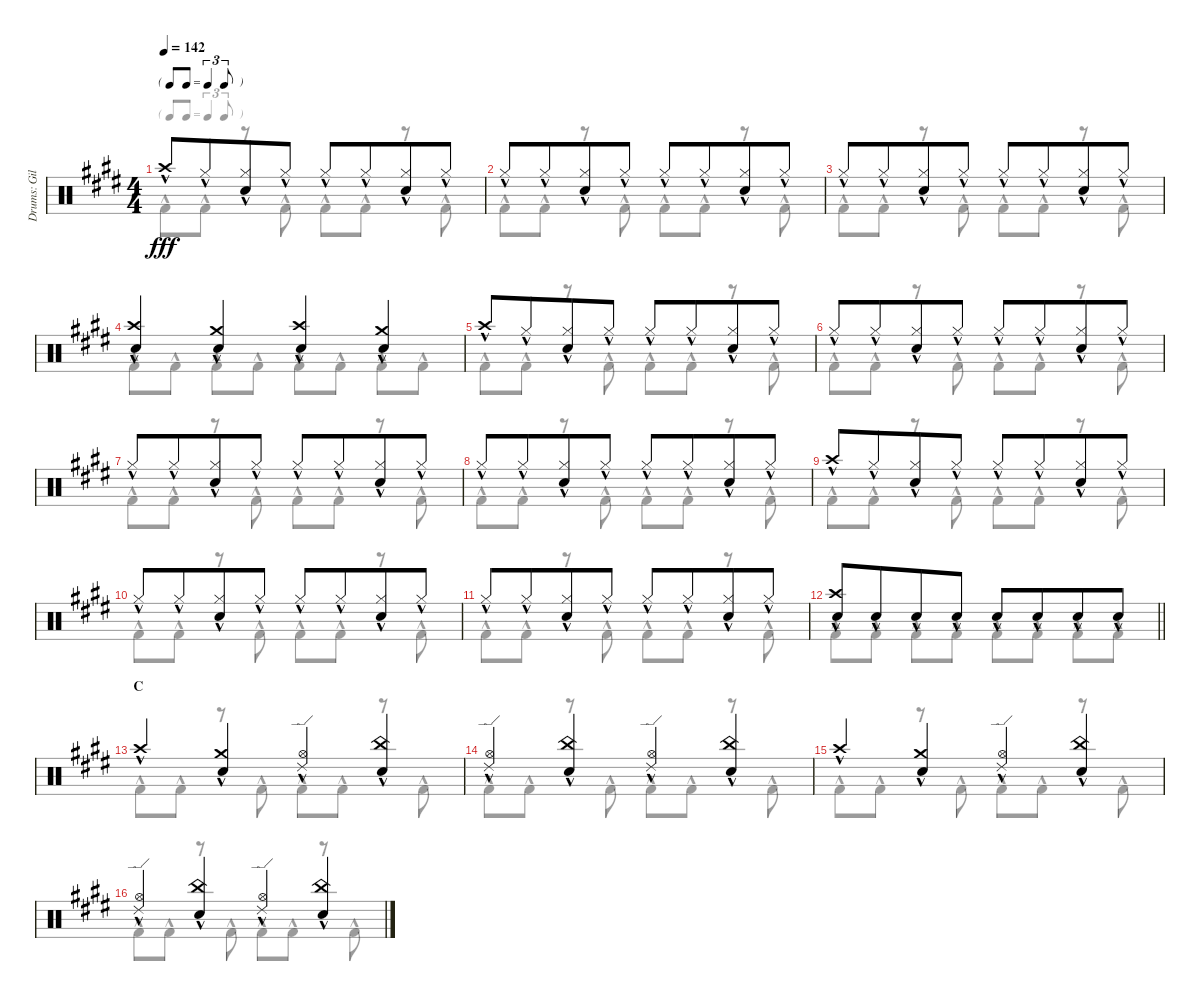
\track ("Drums: Gil" "Drums: Gil") {instrument percussion}
\staff {score}
\articulation defaults
\voice
\ts (4 4)
\tf triplet8th
\tempo 142
\clef neutral
\ks e "Crash high (hit)"{hac}.8{dy fff} "Hi-Hat (closed)"{hac}.8{beam merge}
("Hi-Hat (closed)"{hac} "Snare (hit) 2"{hac}).8 "Hi-Hat (closed)"{hac}.8 "Hi-Hat (closed)"{hac}.8 "Hi-Hat (closed)"{hac}.8{beam merge} ("Hi-Hat (closed)"{hac} "Snare (hit) 2"{hac}).8 "Hi-Hat (closed)"{hac}.8 |
"Hi-Hat (closed)"{hac}.8 "Hi-Hat (closed)"{hac}.8{beam merge} ("Hi-Hat (closed)"{hac} "Snare (hit) 2"{hac}).8 "Hi-Hat (closed)"{hac}.8 "Hi-Hat (closed)"{hac}.8 "Hi-Hat (closed)"{hac}.8{beam merge} ("Hi-Hat (closed)"{hac} "Snare (hit) 2"{hac}).8 "Hi-Hat (closed)"{hac}.8 |
"Hi-Hat (closed)"{hac}.8 "Hi-Hat (closed)"{hac}.8{beam merge} ("Hi-Hat (closed)"{hac} "Snare (hit) 2"{hac}).8 "Hi-Hat (closed)"{hac}.8 "Hi-Hat (closed)"{hac}.8 "Hi-Hat (closed)"{hac}.8{beam merge} ("Hi-Hat (closed)"{hac} "Snare (hit) 2"{hac}).8 "Hi-Hat (closed)"{hac}.8 |
("Crash high (hit)"{hac} "Snare (hit) 2"{hac}).4 ("Crash medium (hit)"{hac} "Snare (hit) 2"{hac}).4 ("Crash high (hit)"{hac} "Snare (hit) 2"{hac}).4 ("Crash medium (hit)"{hac} "Snare (hit) 2"{hac}).4 |
"Crash high (hit)"{hac}.8 "Hi-Hat (closed)"{hac}.8{beam merge} ("Hi-Hat (closed)"{hac} "Snare (hit) 2"{hac}).8 "Hi-Hat (closed)"{hac}.8 "Hi-Hat (closed)"{hac}.8 "Hi-Hat (closed)"{hac}.8{beam merge} ("Hi-Hat (closed)"{hac} "Snare (hit) 2"{hac}).8 "Hi-Hat (closed)"{hac}.8 |
"Hi-Hat (closed)"{hac}.8 "Hi-Hat (closed)"{hac}.8{beam merge} ("Hi-Hat (closed)"{hac} "Snare (hit) 2"{hac}).8 "Hi-Hat (closed)"{hac}.8 "Hi-Hat (closed)"{hac}.8 "Hi-Hat (closed)"{hac}.8{beam merge} ("Hi-Hat (closed)"{hac} "Snare (hit) 2"{hac}).8 "Hi-Hat (closed)"{hac}.8 |
"Hi-Hat (closed)"{hac}.8 "Hi-Hat (closed)"{hac}.8{beam merge} ("Hi-Hat (closed)"{hac} "Snare (hit) 2"{hac}).8 "Hi-Hat (closed)"{hac}.8 "Hi-Hat (closed)"{hac}.8 "Hi-Hat (closed)"{hac}.8{beam merge} ("Hi-Hat (closed)"{hac} "Snare (hit) 2"{hac}).8 "Hi-Hat (closed)"{hac}.8 |
"Hi-Hat (closed)"{hac}.8 "Hi-Hat (closed)"{hac}.8{beam merge} ("Hi-Hat (closed)"{hac} "Snare (hit) 2"{hac}).8 "Hi-Hat (closed)"{hac}.8 "Hi-Hat (closed)"{hac}.8 "Hi-Hat (closed)"{hac}.8{beam merge} ("Hi-Hat (closed)"{hac} "Snare (hit) 2"{hac}).8 "Hi-Hat (closed)"{hac}.8 |
"Crash high (hit)"{hac}.8 "Hi-Hat (closed)"{hac}.8{beam merge} ("Hi-Hat (closed)"{hac} "Snare (hit) 2"{hac}).8 "Hi-Hat (closed)"{hac}.8 "Hi-Hat (closed)"{hac}.8 "Hi-Hat (closed)"{hac}.8{beam merge} ("Hi-Hat (closed)"{hac} "Snare (hit) 2"{hac}).8 "Hi-Hat (closed)"{hac}.8 |
"Hi-Hat (closed)"{hac}.8 "Hi-Hat (closed)"{hac}.8{beam merge} ("Hi-Hat (closed)"{hac} "Snare (hit) 2"{hac}).8 "Hi-Hat (closed)"{hac}.8 "Hi-Hat (closed)"{hac}.8 "Hi-Hat (closed)"{hac}.8{beam merge} ("Hi-Hat (closed)"{hac} "Snare (hit) 2"{hac}).8 "Hi-Hat (closed)"{hac}.8 |
"Hi-Hat (closed)"{hac}.8 "Hi-Hat (closed)"{hac}.8{beam merge} ("Hi-Hat (closed)"{hac} "Snare (hit) 2"{hac}).8 "Hi-Hat (closed)"{hac}.8 "Hi-Hat (closed)"{hac}.8 "Hi-Hat (closed)"{hac}.8{beam merge} ("Hi-Hat (closed)"{hac} "Snare (hit) 2"{hac}).8 "Hi-Hat (closed)"{hac}.8 |
\barLineRight lightlight
("Crash high (hit)"{hac} "Snare (hit) 2"{hac}).8 "Snare (hit) 2"{hac}.8{beam merge} "Snare (hit) 2"{hac}.8 "Snare (hit) 2"{hac}.8 "Snare (hit) 2"{hac}.8 "Snare (hit) 2"{hac}.8{beam merge} "Snare (hit) 2"{hac}.8 "Snare (hit) 2"{hac}.8 |
\section ("" "C")
"Crash high (hit)"{hac}.4 ("Crash medium (hit)"{hac} "Snare (hit) 2"{hac}).4 ("Ride (edge) 2"{hac} "Hi-Hat (open)"{hac}).4 ("China (hit)"{hac} "Snare (hit) 2"{hac}).4 |
("Ride (edge) 2"{hac} "Hi-Hat (open)"{hac}).4 ("China (hit)"{hac} "Snare (hit) 2"{hac}).4 ("Ride (edge) 2"{hac} "Hi-Hat (open)"{hac}).4 ("China (hit)"{hac} "Snare (hit) 2"{hac}).4 |
"Crash high (hit)"{hac}.4 ("Crash medium (hit)"{hac} "Snare (hit) 2"{hac}).4 ("Ride (edge) 2"{hac} "Hi-Hat (open)"{hac}).4 ("China (hit)"{hac} "Snare (hit) 2"{hac}).4 |
("Ride (edge) 2"{hac} "Hi-Hat (open)"{hac}).4 ("China (hit)"{hac} "Snare (hit) 2"{hac}).4 ("Ride (edge) 2"{hac} "Hi-Hat (open)"{hac}).4 ("China (hit)"{hac} "Snare (hit) 2"{hac}).4
\voice
\clef neutral
\ottava regular
\simile none
\ks e "Kick (hit) 2"{hac}.8{dy fff} "Kick (hit) 2"{hac}.8
r.8 "Kick (hit) 2"{hac}.8 "Kick (hit) 2"{hac}.8 "Kick (hit) 2"{hac}.8 r.8 "Kick (hit) 2"{hac}.8 |
"Kick (hit) 2"{hac}.8 "Kick (hit) 2"{hac}.8 r.8 "Kick (hit) 2"{hac}.8 "Kick (hit) 2"{hac}.8 "Kick (hit) 2"{hac}.8 r.8 "Kick (hit) 2"{hac}.8 |
"Kick (hit) 2"{hac}.8 "Kick (hit) 2"{hac}.8 r.8 "Kick (hit) 2"{hac}.8 "Kick (hit) 2"{hac}.8 "Kick (hit) 2"{hac}.8 r.8 "Kick (hit) 2"{hac}.8 |
"Kick (hit) 2"{hac}.8 "Kick (hit) 2"{hac}.8 "Kick (hit) 2"{hac}.8 "Kick (hit) 2"{hac}.8 "Kick (hit) 2"{hac}.8 "Kick (hit) 2"{hac}.8 "Kick (hit) 2"{hac}.8 "Kick (hit) 2"{hac}.8 |
"Kick (hit) 2"{hac}.8 "Kick (hit) 2"{hac}.8 r.8 "Kick (hit) 2"{hac}.8 "Kick (hit) 2"{hac}.8 "Kick (hit) 2"{hac}.8 r.8 "Kick (hit) 2"{hac}.8 |
"Kick (hit) 2"{hac}.8 "Kick (hit) 2"{hac}.8 r.8 "Kick (hit) 2"{hac}.8 "Kick (hit) 2"{hac}.8 "Kick (hit) 2"{hac}.8 r.8 "Kick (hit) 2"{hac}.8 |
"Kick (hit) 2"{hac}.8 "Kick (hit) 2"{hac}.8 r.8 "Kick (hit) 2"{hac}.8 "Kick (hit) 2"{hac}.8 "Kick (hit) 2"{hac}.8 r.8 "Kick (hit) 2"{hac}.8 |
"Kick (hit) 2"{hac}.8 "Kick (hit) 2"{hac}.8 r.8 "Kick (hit) 2"{hac}.8 "Kick (hit) 2"{hac}.8 "Kick (hit) 2"{hac}.8 r.8 "Kick (hit) 2"{hac}.8 |
"Kick (hit) 2"{hac}.8 "Kick (hit) 2"{hac}.8 r.8 "Kick (hit) 2"{hac}.8 "Kick (hit) 2"{hac}.8 "Kick (hit) 2"{hac}.8 r.8 "Kick (hit) 2"{hac}.8 |
"Kick (hit) 2"{hac}.8 "Kick (hit) 2"{hac}.8 r.8 "Kick (hit) 2"{hac}.8 "Kick (hit) 2"{hac}.8 "Kick (hit) 2"{hac}.8 r.8 "Kick (hit) 2"{hac}.8 |
"Kick (hit) 2"{hac}.8 "Kick (hit) 2"{hac}.8 r.8 "Kick (hit) 2"{hac}.8 "Kick (hit) 2"{hac}.8 "Kick (hit) 2"{hac}.8 r.8 "Kick (hit) 2"{hac}.8 |
\barLineRight lightlight "Kick (hit) 2"{hac}.8 "Kick (hit) 2"{hac}.8 "Kick (hit) 2"{hac}.8 "Kick (hit) 2"{hac}.8 "Kick (hit) 2"{hac}.8 "Kick (hit) 2"{hac}.8 "Kick (hit) 2"{hac}.8 "Kick (hit) 2"{hac}.8
|
"Kick (hit) 2"{hac}.8 "Kick (hit) 2"{hac}.8 r.8 "Kick (hit) 2"{hac}.8 "Kick (hit) 2"{hac}.8 "Kick (hit) 2"{hac}.8 r.8 "Kick (hit) 2"{hac}.8 |
"Kick (hit) 2"{hac}.8 "Kick (hit) 2"{hac}.8 r.8 "Kick (hit) 2"{hac}.8 "Kick (hit) 2"{hac}.8 "Kick (hit) 2"{hac}.8 r.8 "Kick (hit) 2"{hac}.8 |
"Kick (hit) 2"{hac}.8 "Kick (hit) 2"{hac}.8 r.8 "Kick (hit) 2"{hac}.8 "Kick (hit) 2"{hac}.8 "Kick (hit) 2"{hac}.8 r.8 "Kick (hit) 2"{hac}.8 |
"Kick (hit) 2"{hac}.8 "Kick (hit) 2"{hac}.8 r.8 "Kick (hit) 2"{hac}.8 "Kick (hit) 2"{hac}.8 "Kick (hit) 2"{hac}.8 r.8 "Kick (hit) 2"{hac}.8
